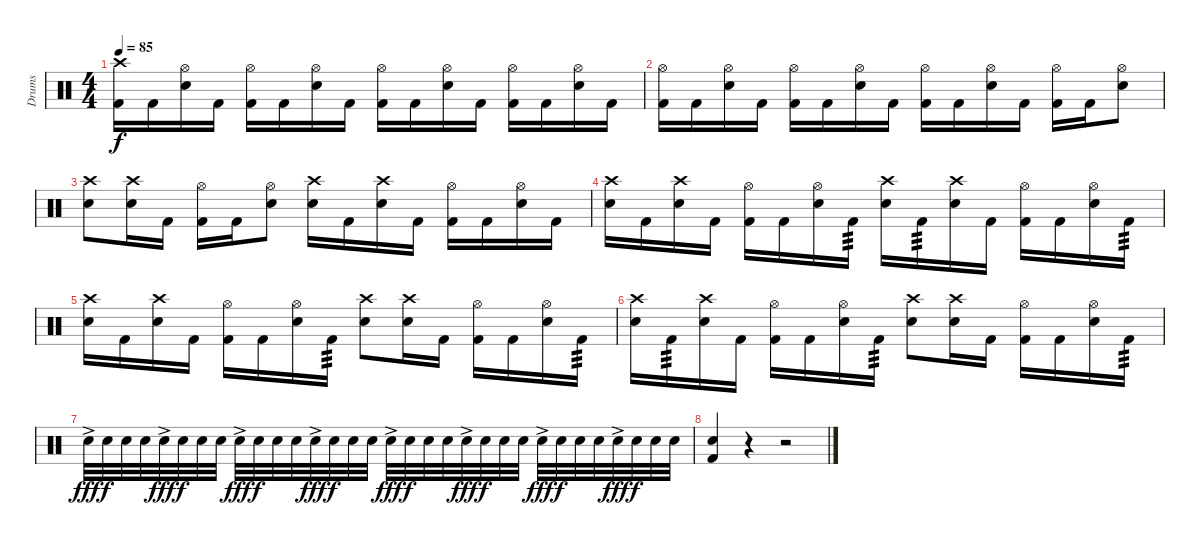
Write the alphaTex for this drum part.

\track ("Drums" "Drums") {instrument percussion}
\staff {score}
\articulation defaults
\ts (4 4)
\tempo 85
\clef neutral
\ks c
("Crash high (hit)" "Kick (hit) 2").16{dy f} "Kick (hit) 2".16 ("Hi-Hat (open)" "Electric Snare (hit)").16 "Kick (hit) 2".16 ("Hi-Hat (open)" "Kick (hit) 2").16 "Kick (hit) 2".16 ("Hi-Hat (open)" "Electric Snare (hit)").16 "Kick (hit) 2".16 ("Hi-Hat (open)" "Kick (hit) 2").16 "Kick (hit) 2".16 ("Hi-Hat (open)" "Electric Snare (hit)").16 "Kick (hit) 2".16 ("Hi-Hat (open)" "Kick (hit) 2").16 "Kick (hit) 2".16 ("Hi-Hat (open)" "Electric Snare (hit)").16 "Kick (hit) 2".16 |
("Hi-Hat (open)" "Kick (hit) 2").16 "Kick (hit) 2".16 ("Hi-Hat (open)" "Electric Snare (hit)").16 "Kick (hit) 2".16 ("Hi-Hat (open)" "Kick (hit) 2").16 "Kick (hit) 2".16 ("Hi-Hat (open)" "Electric Snare (hit)").16 "Kick (hit) 2".16 ("Hi-Hat (open)" "Kick (hit) 2").16 "Kick (hit) 2".16 ("Hi-Hat (open)" "Electric Snare (hit)").16 "Kick (hit) 2".16 ("Hi-Hat (open)" "Kick (hit) 2").16 "Kick (hit) 2".16 ("Hi-Hat (open)" "Electric Snare (hit)").8 |
("Crash high (hit)" "Electric Snare (hit)").8 ("Crash high (hit)" "Electric Snare (hit)").16 "Kick (hit) 2".16 ("Hi-Hat (open)" "Kick (hit) 2").16 "Kick (hit) 2".16 ("Hi-Hat (open)" "Electric Snare (hit)").8 ("Crash high (hit)" "Electric Snare (hit)").16 "Kick (hit) 2".16 ("Crash high (hit)" "Electric Snare (hit)").16 "Kick (hit) 2".16 ("Hi-Hat (open)" "Kick (hit) 2").16 "Kick (hit) 2".16 ("Hi-Hat (open)" "Electric Snare (hit)").16 "Kick (hit) 2".16 |
("Crash high (hit)" "Electric Snare (hit)").16 "Kick (hit) 2".16 ("Crash high (hit)" "Electric Snare (hit)").16 "Kick (hit) 2".16 ("Hi-Hat (open)" "Kick (hit) 2").16 "Kick (hit) 2".16 ("Hi-Hat (open)" "Electric Snare (hit)").16 "Kick (hit) 2".16{tp 3} ("Crash high (hit)" "Electric Snare (hit)").16 "Kick (hit) 2".16{tp 3} ("Crash high (hit)" "Electric Snare (hit)").16 "Kick (hit) 2".16 ("Hi-Hat (open)" "Kick (hit) 2").16 "Kick (hit) 2".16 ("Hi-Hat (open)" "Electric Snare (hit)").16 "Kick (hit) 2".16{tp 3} |
("Crash high (hit)" "Electric Snare (hit)").16 "Kick (hit) 2".16 ("Crash high (hit)" "Electric Snare (hit)").16 "Kick (hit) 2".16 ("Hi-Hat (open)" "Kick (hit) 2").16 "Kick (hit) 2".16 ("Hi-Hat (open)" "Electric Snare (hit)").16 "Kick (hit) 2".16{tp 3} ("Crash high (hit)" "Electric Snare (hit)").8 ("Crash high (hit)" "Electric Snare (hit)").16 "Kick (hit) 2".16 ("Hi-Hat (open)" "Kick (hit) 2").16 "Kick (hit) 2".16 ("Hi-Hat (open)" "Electric Snare (hit)").16 "Kick (hit) 2".16{tp 3} |
("Crash high (hit)" "Electric Snare (hit)").16 "Kick (hit) 2".16{tp 3} ("Crash high (hit)" "Electric Snare (hit)").16 "Kick (hit) 2".16 ("Hi-Hat (open)" "Kick (hit) 2").16 "Kick (hit) 2".16 ("Hi-Hat (open)" "Electric Snare (hit)").16 "Kick (hit) 2".16{tp 3} ("Crash high (hit)" "Electric Snare (hit)").8 ("Crash high (hit)" "Electric Snare (hit)").16 "Kick (hit) 2".16 ("Hi-Hat (open)" "Kick (hit) 2").16 "Kick (hit) 2".16 ("Hi-Hat (open)" "Electric Snare (hit)").16 "Kick (hit) 2".16{tp 3} |
"Electric Snare (hit)"{ac}.32{dy fff} "Electric Snare (hit)".32{dy f} "Electric Snare (hit)".32 "Electric Snare (hit)".32 "Electric Snare (hit)"{ac}.32{dy fff} "Electric Snare (hit)".32{dy f} "Electric Snare (hit)".32 "Electric Snare (hit)".32 "Electric Snare (hit)"{ac}.32{dy fff} "Electric Snare (hit)".32{dy f} "Electric Snare (hit)".32 "Electric Snare (hit)".32 "Electric Snare (hit)"{ac}.32{dy fff} "Electric Snare (hit)".32{dy f} "Electric Snare (hit)".32 "Electric Snare (hit)".32 "Electric Snare (hit)"{ac}.32{dy fff} "Electric Snare (hit)".32{dy f} "Electric Snare (hit)".32 "Electric Snare (hit)".32 "Electric Snare (hit)"{ac}.32{dy fff} "Electric Snare (hit)".32{dy f} "Electric Snare (hit)".32 "Electric Snare (hit)".32 "Electric Snare (hit)"{ac}.32{dy fff} "Electric Snare (hit)".32{dy f} "Electric Snare (hit)".32 "Electric Snare (hit)".32 "Electric Snare (hit)"{ac}.32{dy fff} "Electric Snare (hit)".32{dy f} "Electric Snare (hit)".32 "Electric Snare (hit)".32 |
("Electric Snare (hit)" "Kick (hit) 2").4 r.4 r.2
